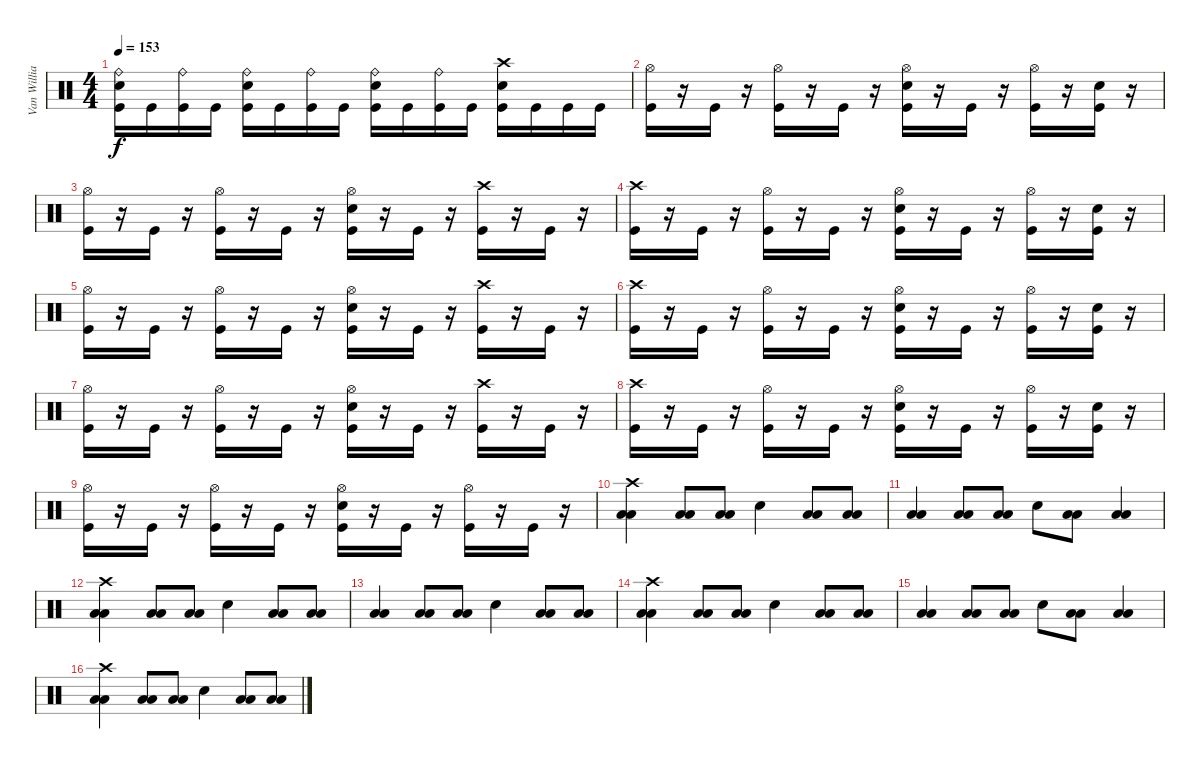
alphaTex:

\track ("Van Williams" "Van Willia") {instrument percussion}
\staff {score}
\articulation defaults
\ts (4 4)
\tempo 153
\clef neutral
\ks c
("Ride (bell)" "Electric Snare (hit)" "Kick (hit)").16{dy f} "Kick (hit)".16 ("Ride (bell)" "Kick (hit)").16 "Kick (hit)".16 ("Ride (bell)" "Electric Snare (hit)" "Kick (hit)").16 "Kick (hit)".16 ("Ride (bell)" "Kick (hit)").16 "Kick (hit)".16 ("Ride (bell)" "Electric Snare (hit)" "Kick (hit)").16 "Kick (hit)".16 ("Ride (bell)" "Kick (hit)").16 "Kick (hit)".16 ("Crash high (hit)" "Electric Snare (hit)" "Kick (hit)").16 "Kick (hit)".16 "Kick (hit)".16 "Kick (hit)".16 |
("Hi-Hat (open)" "Kick (hit)").16 r.16 "Kick (hit)".16 r.16 ("Hi-Hat (open)" "Kick (hit)").16 r.16 "Kick (hit)".16 r.16 ("Hi-Hat (open)" "Electric Snare (hit)" "Kick (hit)").16 r.16 "Kick (hit)".16 r.16 ("Hi-Hat (open)" "Kick (hit)").16 r.16 ("Electric Snare (hit)" "Kick (hit)").16 r.16 |
("Hi-Hat (open)" "Kick (hit)").16 r.16 "Kick (hit)".16 r.16 ("Hi-Hat (open)" "Kick (hit)").16 r.16 "Kick (hit)".16 r.16 ("Hi-Hat (open)" "Electric Snare (hit)" "Kick (hit)").16 r.16 "Kick (hit)".16 r.16 ("Crash high (hit)" "Kick (hit)").16 r.16 "Kick (hit)".16 r.16 |
("Crash high (hit)" "Kick (hit)").16 r.16 "Kick (hit)".16 r.16 ("Hi-Hat (open)" "Kick (hit)").16 r.16 "Kick (hit)".16 r.16 ("Hi-Hat (open)" "Electric Snare (hit)" "Kick (hit)").16 r.16 "Kick (hit)".16 r.16 ("Hi-Hat (open)" "Kick (hit)").16 r.16 ("Electric Snare (hit)" "Kick (hit)").16 r.16 |
("Hi-Hat (open)" "Kick (hit)").16 r.16 "Kick (hit)".16 r.16 ("Hi-Hat (open)" "Kick (hit)").16 r.16 "Kick (hit)".16 r.16 ("Hi-Hat (open)" "Electric Snare (hit)" "Kick (hit)").16 r.16 "Kick (hit)".16 r.16 ("Crash high (hit)" "Kick (hit)").16 r.16 "Kick (hit)".16 r.16 |
("Crash high (hit)" "Kick (hit)").16 r.16 "Kick (hit)".16 r.16 ("Hi-Hat (open)" "Kick (hit)").16 r.16 "Kick (hit)".16 r.16 ("Hi-Hat (open)" "Electric Snare (hit)" "Kick (hit)").16 r.16 "Kick (hit)".16 r.16 ("Hi-Hat (open)" "Kick (hit)").16 r.16 ("Electric Snare (hit)" "Kick (hit)").16 r.16 |
("Hi-Hat (open)" "Kick (hit)").16 r.16 "Kick (hit)".16 r.16 ("Hi-Hat (open)" "Kick (hit)").16 r.16 "Kick (hit)".16 r.16 ("Hi-Hat (open)" "Electric Snare (hit)" "Kick (hit)").16 r.16 "Kick (hit)".16 r.16 ("Crash high (hit)" "Kick (hit)").16 r.16 "Kick (hit)".16 r.16 |
("Crash high (hit)" "Kick (hit)").16 r.16 "Kick (hit)".16 r.16 ("Hi-Hat (open)" "Kick (hit)").16 r.16 "Kick (hit)".16 r.16 ("Hi-Hat (open)" "Electric Snare (hit)" "Kick (hit)").16 r.16 "Kick (hit)".16 r.16 ("Hi-Hat (open)" "Kick (hit)").16 r.16 ("Electric Snare (hit)" "Kick (hit)").16 r.16 |
("Hi-Hat (open)" "Kick (hit)").16 r.16 "Kick (hit)".16 r.16 ("Hi-Hat (open)" "Kick (hit)").16 r.16 "Kick (hit)".16 r.16 ("Hi-Hat (open)" "Electric Snare (hit)" "Kick (hit)").16 r.16 "Kick (hit)".16 r.16 ("Hi-Hat (open)" "Kick (hit)").16 r.16 "Kick (hit)".16 r.16 |
("Crash high (hit)" "Low Floor Tom (hit)" "Low Floor Tom (hit)").4 ("Low Floor Tom (hit)" "Low Floor Tom (hit)").8 ("Low Floor Tom (hit)" "Low Floor Tom (hit)").8 "Electric Snare (hit)".4 ("Low Floor Tom (hit)" "Low Floor Tom (hit)").8 ("Low Floor Tom (hit)" "Low Floor Tom (hit)").8 |
("Low Floor Tom (hit)" "Low Floor Tom (hit)").4 ("Low Floor Tom (hit)" "Low Floor Tom (hit)").8 ("Low Floor Tom (hit)" "Low Floor Tom (hit)").8 "Electric Snare (hit)".8 ("Low Floor Tom (hit)" "Low Floor Tom (hit)").8 ("Low Floor Tom (hit)" "Low Floor Tom (hit)").4 |
("Crash high (hit)" "Low Floor Tom (hit)" "Low Floor Tom (hit)").4 ("Low Floor Tom (hit)" "Low Floor Tom (hit)").8 ("Low Floor Tom (hit)" "Low Floor Tom (hit)").8 "Electric Snare (hit)".4 ("Low Floor Tom (hit)" "Low Floor Tom (hit)").8 ("Low Floor Tom (hit)" "Low Floor Tom (hit)").8 |
("Low Floor Tom (hit)" "Low Floor Tom (hit)").4 ("Low Floor Tom (hit)" "Low Floor Tom (hit)").8 ("Low Floor Tom (hit)" "Low Floor Tom (hit)").8 "Electric Snare (hit)".4 ("Low Floor Tom (hit)" "Low Floor Tom (hit)").8 ("Low Floor Tom (hit)" "Low Floor Tom (hit)").8 |
("Crash high (hit)" "Low Floor Tom (hit)" "Low Floor Tom (hit)").4 ("Low Floor Tom (hit)" "Low Floor Tom (hit)").8 ("Low Floor Tom (hit)" "Low Floor Tom (hit)").8 "Electric Snare (hit)".4 ("Low Floor Tom (hit)" "Low Floor Tom (hit)").8 ("Low Floor Tom (hit)" "Low Floor Tom (hit)").8 |
("Low Floor Tom (hit)" "Low Floor Tom (hit)").4 ("Low Floor Tom (hit)" "Low Floor Tom (hit)").8 ("Low Floor Tom (hit)" "Low Floor Tom (hit)").8 "Electric Snare (hit)".8 ("Low Floor Tom (hit)" "Low Floor Tom (hit)").8 ("Low Floor Tom (hit)" "Low Floor Tom (hit)").4 |
("Crash high (hit)" "Low Floor Tom (hit)" "Low Floor Tom (hit)").4 ("Low Floor Tom (hit)" "Low Floor Tom (hit)").8 ("Low Floor Tom (hit)" "Low Floor Tom (hit)").8 "Electric Snare (hit)".4 ("Low Floor Tom (hit)" "Low Floor Tom (hit)").8 ("Low Floor Tom (hit)" "Low Floor Tom (hit)").8
